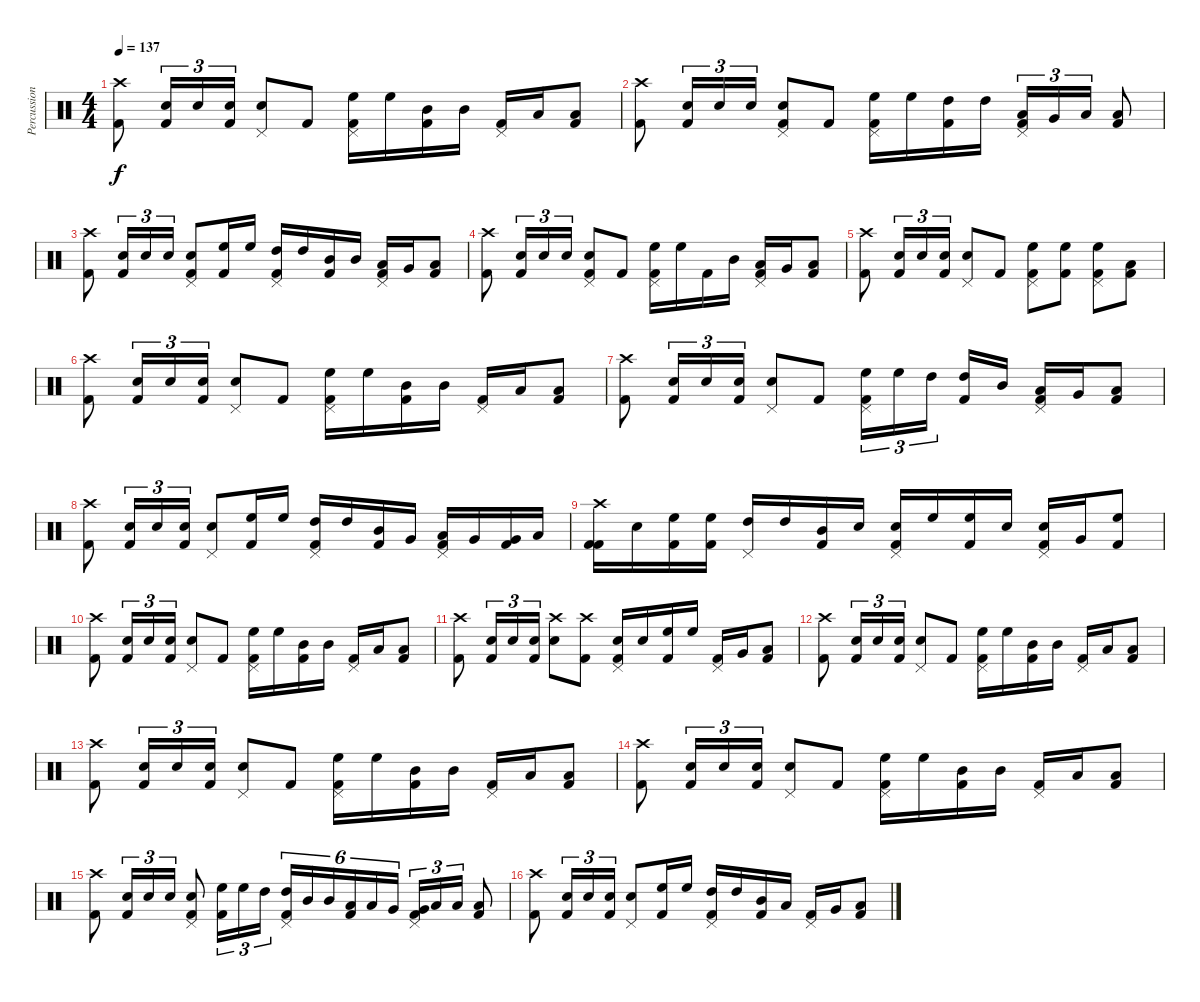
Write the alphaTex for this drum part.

\track ("Percussion" "Percussion") {instrument percussion}
\staff {score}
\articulation defaults
\ts (4 4)
\tempo 137
\clef neutral
\ks c
("Kick (hit) 2" "Crash high (hit)").8{dy f} ("Kick (hit) 2" "Snare (hit) 2").16{tu (3 2)} "Snare (hit) 2".16{tu (3 2)} ("Kick (hit) 2" "Snare (hit) 2").16{tu (3 2)} ("Snare (hit) 2" "Pedal Hi-Hat (hit)").8 "Kick (hit) 2".8 ("Kick (hit) 2" "High Floor Tom (hit)" "Pedal Hi-Hat (hit)").16 "High Floor Tom (hit)".16 ("Kick (hit) 2" "Mid Tom (hit)").16 "Mid Tom (hit)".16 ("Kick (hit) 2" "Pedal Hi-Hat (hit)").16 "Low Tom (hit)".16 ("Kick (hit) 2" "Low Tom (hit)").8 |
("Kick (hit) 2" "Crash high (hit)").8 ("Kick (hit) 2" "Snare (hit) 2").16{tu (3 2)} "Snare (hit) 2".16{tu (3 2)} "Snare (hit) 2".16{tu (3 2)} ("Kick (hit) 2" "Snare (hit) 2" "Pedal Hi-Hat (hit)").8 "Kick (hit) 2".8 ("Kick (hit) 2" "High Floor Tom (hit)" "Pedal Hi-Hat (hit)").16 "High Floor Tom (hit)".16 ("Kick (hit) 2" "High Tom (hit)").16 "High Tom (hit)".16 ("Kick (hit) 2" "Low Tom (hit)" "Pedal Hi-Hat (hit)").16{tu (3 2)} "Very Low Tom (hit)".16{tu (3 2)} "Low Floor Tom (hit)".16{tu (3 2)} ("Kick (hit) 2" "Low Floor Tom (hit)").8 |
("Kick (hit) 2" "Crash high (hit)").8 ("Kick (hit) 2" "Snare (hit) 2").16{tu (3 2)} "Snare (hit) 2".16{tu (3 2)} "Snare (hit) 2".16{tu (3 2)} ("Kick (hit) 2" "Snare (hit) 2" "Pedal Hi-Hat (hit)").8 ("Kick (hit) 2" "High Floor Tom (hit)").16 "High Floor Tom (hit)".16 ("Kick (hit) 2" "High Tom (hit)" "Pedal Hi-Hat (hit)").16 "High Tom (hit)".16 ("Kick (hit) 2" "Mid Tom (hit)").16 "Mid Tom (hit)".16 ("Kick (hit) 2" "Low Tom (hit)" "Pedal Hi-Hat (hit)").16 "Very Low Tom (hit)".16 ("Kick (hit) 2" "Low Floor Tom (hit)").8 |
("Kick (hit) 2" "Crash high (hit)").8 ("Kick (hit) 2" "Snare (hit) 2").16{tu (3 2)} "Snare (hit) 2".16{tu (3 2)} "Snare (hit) 2".16{tu (3 2)} ("Kick (hit) 2" "Snare (hit) 2" "Pedal Hi-Hat (hit)").8 "Kick (hit) 2".8 ("Kick (hit) 2" "High Floor Tom (hit)" "Pedal Hi-Hat (hit)").16 "High Floor Tom (hit)".16 "Kick (hit) 2".16 "Mid Tom (hit)".16 ("Kick (hit) 2" "Low Tom (hit)" "Pedal Hi-Hat (hit)").16 "Very Low Tom (hit)".16 ("Kick (hit) 2" "Low Floor Tom (hit)").8 |
("Kick (hit) 2" "Crash high (hit)").8 ("Kick (hit) 2" "Snare (hit) 2").16{tu (3 2)} "Snare (hit) 2".16{tu (3 2)} ("Kick (hit) 2" "Snare (hit) 2").16{tu (3 2)} ("Snare (hit) 2" "Pedal Hi-Hat (hit)").8 "Kick (hit) 2".8 ("Kick (hit) 2" "High Floor Tom (hit)" "Pedal Hi-Hat (hit)").8 ("Kick (hit) 2" "High Floor Tom (hit)").8 ("Kick (hit) 2" "High Floor Tom (hit)" "Pedal Hi-Hat (hit)").8 ("Kick (hit) 2" "Low Floor Tom (hit)").8 |
("Kick (hit) 2" "Crash high (hit)").8 ("Kick (hit) 2" "Snare (hit) 2").16{tu (3 2)} "Snare (hit) 2".16{tu (3 2)} ("Kick (hit) 2" "Snare (hit) 2").16{tu (3 2)} ("Snare (hit) 2" "Pedal Hi-Hat (hit)").8 "Kick (hit) 2".8 ("Kick (hit) 2" "High Floor Tom (hit)" "Pedal Hi-Hat (hit)").16 "High Floor Tom (hit)".16 ("Kick (hit) 2" "Mid Tom (hit)").16 "Mid Tom (hit)".16 ("Kick (hit) 2" "Pedal Hi-Hat (hit)").16 "Low Tom (hit)".16 ("Kick (hit) 2" "Low Tom (hit)").8 |
("Kick (hit) 2" "Crash high (hit)").8 ("Kick (hit) 2" "Snare (hit) 2").16{tu (3 2)} "Snare (hit) 2".16{tu (3 2)} ("Kick (hit) 2" "Snare (hit) 2").16{tu (3 2)} ("Snare (hit) 2" "Pedal Hi-Hat (hit)").8 "Kick (hit) 2".8 ("Kick (hit) 2" "High Floor Tom (hit)" "Pedal Hi-Hat (hit)").16{tu (3 2)} "High Floor Tom (hit)".16{tu (3 2)} "High Tom (hit)".16{tu (3 2)} ("Kick (hit) 2" "High Tom (hit)").16 "Mid Tom (hit)".16 ("Kick (hit) 2" "Low Tom (hit)" "Pedal Hi-Hat (hit)").16 "Very Low Tom (hit)".16 ("Kick (hit) 2" "Low Floor Tom (hit)").8 |
("Kick (hit) 2" "Crash high (hit)").8 ("Kick (hit) 2" "Snare (hit) 2").16{tu (3 2)} "Snare (hit) 2".16{tu (3 2)} ("Kick (hit) 2" "Snare (hit) 2").16{tu (3 2)} ("Snare (hit) 2" "Pedal Hi-Hat (hit)").8 ("Kick (hit) 2" "High Floor Tom (hit)").16 "High Floor Tom (hit)".16 ("Kick (hit) 2" "High Tom (hit)" "Pedal Hi-Hat (hit)").16 "High Tom (hit)".16 ("Kick (hit) 2" "Mid Tom (hit)").16 "Very Low Tom (hit)".16 ("Kick (hit) 2" "Low Tom (hit)" "Pedal Hi-Hat (hit)").16 "Very Low Tom (hit)".16 ("Kick (hit) 2" "Very Low Tom (hit)").16 "Low Floor Tom (hit)".16 |
("Kick (hit) 2" "Kick (hit) 2" "Crash high (hit)").16 "Snare (hit) 2".16 ("Kick (hit) 2" "High Floor Tom (hit)").16 ("Kick (hit) 2" "High Floor Tom (hit)").16 ("High Tom (hit)" "Pedal Hi-Hat (hit)").16 "High Tom (hit)".16 ("Kick (hit) 2" "Mid Tom (hit)").16 "Snare (hit) 2".16 ("Kick (hit) 2" "Snare (hit) 2" "Pedal Hi-Hat (hit)").16 "High Floor Tom (hit)".16 ("Kick (hit) 2" "High Floor Tom (hit)").16 "Snare (hit) 2".16 ("Kick (hit) 2" "Snare (hit) 2" "Pedal Hi-Hat (hit)").16 "Very Low Tom (hit)".16 ("Kick (hit) 2" "High Floor Tom (hit)").8 |
("Kick (hit) 2" "Crash high (hit)").8 ("Kick (hit) 2" "Snare (hit) 2").16{tu (3 2)} "Snare (hit) 2".16{tu (3 2)} ("Kick (hit) 2" "Snare (hit) 2").16{tu (3 2)} ("Snare (hit) 2" "Pedal Hi-Hat (hit)").8 "Kick (hit) 2".8 ("Kick (hit) 2" "High Floor Tom (hit)" "Pedal Hi-Hat (hit)").16 "High Floor Tom (hit)".16 ("Kick (hit) 2" "Mid Tom (hit)").16 "Mid Tom (hit)".16 ("Kick (hit) 2" "Pedal Hi-Hat (hit)").16 "Low Tom (hit)".16 ("Kick (hit) 2" "Low Tom (hit)").8 |
("Kick (hit) 2" "Crash high (hit)").8 ("Kick (hit) 2" "Snare (hit) 2").16{tu (3 2)} "Snare (hit) 2".16{tu (3 2)} ("Kick (hit) 2" "Snare (hit) 2").16{tu (3 2)} ("Snare (hit) 2" "Crash high (hit)").8 ("Kick (hit) 2" "Crash high (hit)").8 ("Kick (hit) 2" "Snare (hit) 2" "Pedal Hi-Hat (hit)").16 "Snare (hit) 2".16 ("Kick (hit) 2" "High Floor Tom (hit)").16 "High Floor Tom (hit)".16 ("Kick (hit) 2" "Pedal Hi-Hat (hit)").16 "Very Low Tom (hit)".16 ("Kick (hit) 2" "Low Floor Tom (hit)").8 |
("Kick (hit) 2" "Crash high (hit)").8 ("Kick (hit) 2" "Snare (hit) 2").16{tu (3 2)} "Snare (hit) 2".16{tu (3 2)} ("Kick (hit) 2" "Snare (hit) 2").16{tu (3 2)} ("Snare (hit) 2" "Pedal Hi-Hat (hit)").8 "Kick (hit) 2".8 ("Kick (hit) 2" "High Floor Tom (hit)" "Pedal Hi-Hat (hit)").16 "High Floor Tom (hit)".16 ("Kick (hit) 2" "Mid Tom (hit)").16 "Mid Tom (hit)".16 ("Kick (hit) 2" "Pedal Hi-Hat (hit)").16 "Low Tom (hit)".16 ("Kick (hit) 2" "Low Tom (hit)").8 |
("Kick (hit) 2" "Crash high (hit)").8 ("Kick (hit) 2" "Snare (hit) 2").16{tu (3 2)} "Snare (hit) 2".16{tu (3 2)} ("Kick (hit) 2" "Snare (hit) 2").16{tu (3 2)} ("Snare (hit) 2" "Pedal Hi-Hat (hit)").8 "Kick (hit) 2".8 ("Kick (hit) 2" "High Floor Tom (hit)" "Pedal Hi-Hat (hit)").16 "High Floor Tom (hit)".16 ("Kick (hit) 2" "Mid Tom (hit)").16 "Mid Tom (hit)".16 ("Kick (hit) 2" "Pedal Hi-Hat (hit)").16 "Low Tom (hit)".16 ("Kick (hit) 2" "Low Tom (hit)").8 |
("Kick (hit) 2" "Crash high (hit)").8 ("Kick (hit) 2" "Snare (hit) 2").16{tu (3 2)} "Snare (hit) 2".16{tu (3 2)} ("Kick (hit) 2" "Snare (hit) 2").16{tu (3 2)} ("Snare (hit) 2" "Pedal Hi-Hat (hit)").8 "Kick (hit) 2".8 ("Kick (hit) 2" "High Floor Tom (hit)" "Pedal Hi-Hat (hit)").16 "High Floor Tom (hit)".16 ("Kick (hit) 2" "Mid Tom (hit)").16 "Mid Tom (hit)".16 ("Kick (hit) 2" "Pedal Hi-Hat (hit)").16 "Low Tom (hit)".16 ("Kick (hit) 2" "Low Tom (hit)").8 |
("Kick (hit) 2" "Crash high (hit)").8 ("Kick (hit) 2" "Snare (hit) 2").16{tu (3 2)} "Snare (hit) 2".16{tu (3 2)} "Snare (hit) 2".16{tu (3 2)} ("Kick (hit) 2" "Snare (hit) 2" "Pedal Hi-Hat (hit)").8 ("Kick (hit) 2" "High Floor Tom (hit)").16{tu (3 2)} "High Floor Tom (hit)".16{tu (3 2)} "High Tom (hit)".16{tu (3 2)} ("Kick (hit) 2" "High Tom (hit)" "Pedal Hi-Hat (hit)").16{tu (6 4)} "Mid Tom (hit)".16{tu (6 4)} "Mid Tom (hit)".16{tu (6 4)} ("Kick (hit) 2" "Low Tom (hit)").16{tu (6 4)} "Low Tom (hit)".16{tu (6 4)} "Very Low Tom (hit)".16{tu (6 4)} ("Kick (hit) 2" "Very Low Tom (hit)" "Pedal Hi-Hat (hit)").16{tu (3 2)} "Low Floor Tom (hit)".16{tu (3 2)} "Low Floor Tom (hit)".16{tu (3 2)} ("Kick (hit) 2" "Low Floor Tom (hit)").8 |
("Kick (hit) 2" "Crash high (hit)").8 ("Kick (hit) 2" "Snare (hit) 2").16{tu (3 2)} "Snare (hit) 2".16{tu (3 2)} ("Kick (hit) 2" "Snare (hit) 2").16{tu (3 2)} ("Snare (hit) 2" "Pedal Hi-Hat (hit)").8 ("Kick (hit) 2" "High Floor Tom (hit)").16 "High Floor Tom (hit)".16 ("Kick (hit) 2" "High Tom (hit)" "Pedal Hi-Hat (hit)").16 "High Tom (hit)".16 ("Kick (hit) 2" "Mid Tom (hit)").16 "Low Tom (hit)".16 ("Kick (hit) 2" "Pedal Hi-Hat (hit)").16 "Very Low Tom (hit)".16 ("Kick (hit) 2" "Low Floor Tom (hit)").8
